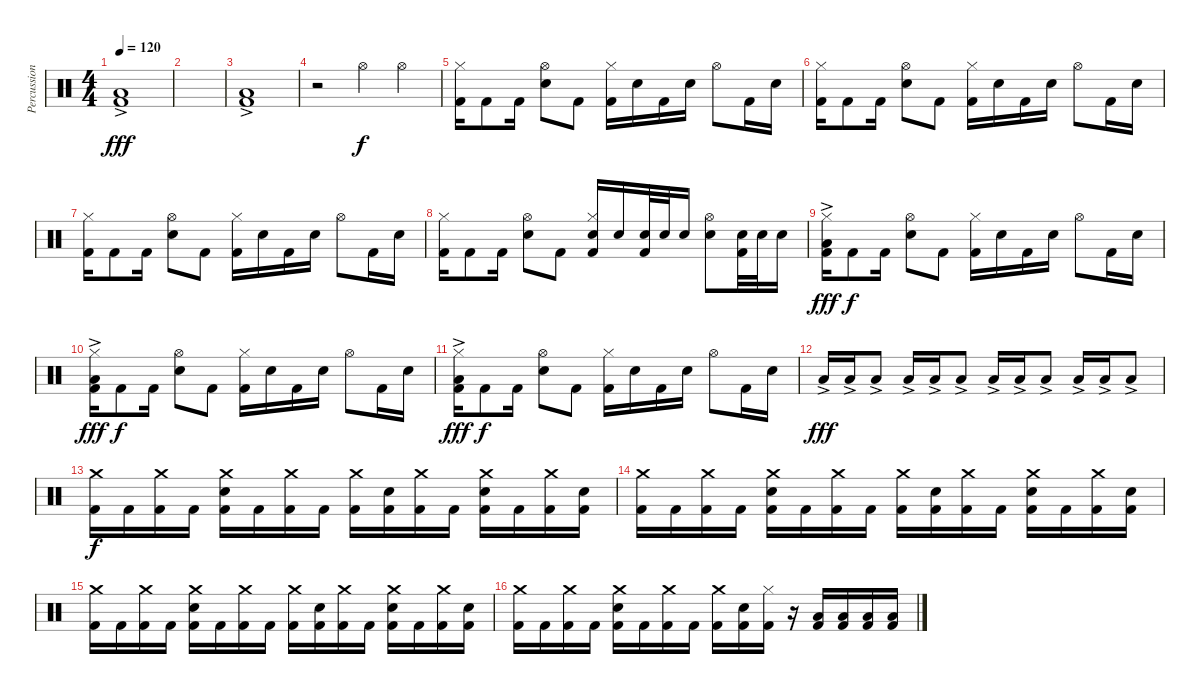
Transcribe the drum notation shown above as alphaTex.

\track ("Percussions" "Percussion") {instrument percussion}
\staff {score}
\articulation defaults
\ts (4 4)
\tempo 120
\clef neutral
\ks c
("Low Floor Tom (hit)"{ac} "Kick (hit) 2"{ac}).1{dy fff} |
|
("Low Floor Tom (hit)"{ac} "Kick (hit) 2"{ac}).1 |
r.2 "Hi-Hat (open)".4{dy f} "Hi-Hat (open)".4 |
("Hi-Hat (closed)" "Kick (hit) 2").16 "Kick (hit) 2".8 "Kick (hit) 2".16 ("Electric Snare (hit)" "Hi-Hat (open)").8 "Kick (hit) 2".8 ("Hi-Hat (closed)" "Kick (hit) 2").16 "Electric Snare (hit)".16 "Kick (hit) 2".16 "Electric Snare (hit)".16 "Hi-Hat (open)".8 "Kick (hit) 2".16 "Electric Snare (hit)".16 |
("Hi-Hat (closed)" "Kick (hit) 2").16 "Kick (hit) 2".8 "Kick (hit) 2".16 ("Electric Snare (hit)" "Hi-Hat (open)").8 "Kick (hit) 2".8 ("Hi-Hat (closed)" "Kick (hit) 2").16 "Electric Snare (hit)".16 "Kick (hit) 2".16 "Electric Snare (hit)".16 "Hi-Hat (open)".8 "Kick (hit) 2".16 "Electric Snare (hit)".16 |
("Hi-Hat (closed)" "Kick (hit) 2").16 "Kick (hit) 2".8 "Kick (hit) 2".16 ("Electric Snare (hit)" "Hi-Hat (open)").8 "Kick (hit) 2".8 ("Hi-Hat (closed)" "Kick (hit) 2").16 "Electric Snare (hit)".16 "Kick (hit) 2".16 "Electric Snare (hit)".16 "Hi-Hat (open)".8 "Kick (hit) 2".16 "Electric Snare (hit)".16 |
("Hi-Hat (closed)" "Kick (hit) 2").16 "Kick (hit) 2".8 "Kick (hit) 2".16 ("Electric Snare (hit)" "Hi-Hat (open)").8 "Kick (hit) 2".8 ("Electric Snare (hit)" "Hi-Hat (closed)" "Kick (hit) 2").16 "Electric Snare (hit)".16 ("Electric Snare (hit)" "Kick (hit) 2").32 "Electric Snare (hit)".32 "Electric Snare (hit)".16 ("Electric Snare (hit)" "Hi-Hat (open)").8 ("Electric Snare (hit)" "Kick (hit) 2").32 "Electric Snare (hit)".32 "Electric Snare (hit)".16 |
("Hi-Hat (closed)" "Low Floor Tom (hit)"{ac} "Kick (hit) 2"{ac}).16{dy fff} "Kick (hit) 2".8{dy f} "Kick (hit) 2".16 ("Electric Snare (hit)" "Hi-Hat (open)").8 "Kick (hit) 2".8 ("Hi-Hat (closed)" "Kick (hit) 2").16 "Electric Snare (hit)".16 "Kick (hit) 2".16 "Electric Snare (hit)".16 "Hi-Hat (open)".8 "Kick (hit) 2".16 "Electric Snare (hit)".16 |
("Hi-Hat (closed)" "Low Floor Tom (hit)"{ac} "Kick (hit) 2"{ac}).16{dy fff} "Kick (hit) 2".8{dy f} "Kick (hit) 2".16 ("Electric Snare (hit)" "Hi-Hat (open)").8 "Kick (hit) 2".8 ("Hi-Hat (closed)" "Kick (hit) 2").16 "Electric Snare (hit)".16 "Kick (hit) 2".16 "Electric Snare (hit)".16 "Hi-Hat (open)".8 "Kick (hit) 2".16 "Electric Snare (hit)".16 |
("Hi-Hat (closed)" "Low Floor Tom (hit)"{ac} "Kick (hit) 2"{ac}).16{dy fff} "Kick (hit) 2".8{dy f} "Kick (hit) 2".16 ("Electric Snare (hit)" "Hi-Hat (open)").8 "Kick (hit) 2".8 ("Hi-Hat (closed)" "Kick (hit) 2").16 "Electric Snare (hit)".16 "Kick (hit) 2".16 "Electric Snare (hit)".16 "Hi-Hat (open)".8 "Kick (hit) 2".16 "Electric Snare (hit)".16 |
"Low Floor Tom (hit)"{ac}.16{dy fff} "Low Floor Tom (hit)"{ac}.16 "Low Floor Tom (hit)"{ac}.8 "Low Floor Tom (hit)"{ac}.16 "Low Floor Tom (hit)"{ac}.16 "Low Floor Tom (hit)"{ac}.8 "Low Floor Tom (hit)"{ac}.16 "Low Floor Tom (hit)"{ac}.16 "Low Floor Tom (hit)"{ac}.8 "Low Floor Tom (hit)"{ac}.16 "Low Floor Tom (hit)"{ac}.16 "Low Floor Tom (hit)"{ac}.8 |
("Crash medium (hit)" "Kick (hit) 2").16{dy f} "Kick (hit) 2".16 ("Crash medium (hit)" "Kick (hit) 2").16 "Kick (hit) 2".16 ("Electric Snare (hit)" "Crash medium (hit)" "Kick (hit) 2").16 "Kick (hit) 2".16 ("Crash medium (hit)" "Kick (hit) 2").16 "Kick (hit) 2".16 ("Crash medium (hit)" "Kick (hit) 2").16 ("Electric Snare (hit)" "Kick (hit) 2").16 ("Crash medium (hit)" "Kick (hit) 2").16 "Kick (hit) 2".16 ("Electric Snare (hit)" "Crash medium (hit)" "Kick (hit) 2").16 "Kick (hit) 2".16 ("Crash medium (hit)" "Kick (hit) 2").16 ("Electric Snare (hit)" "Kick (hit) 2").16 |
("Crash medium (hit)" "Kick (hit) 2").16 "Kick (hit) 2".16 ("Crash medium (hit)" "Kick (hit) 2").16 "Kick (hit) 2".16 ("Electric Snare (hit)" "Crash medium (hit)" "Kick (hit) 2").16 "Kick (hit) 2".16 ("Crash medium (hit)" "Kick (hit) 2").16 "Kick (hit) 2".16 ("Crash medium (hit)" "Kick (hit) 2").16 ("Electric Snare (hit)" "Kick (hit) 2").16 ("Crash medium (hit)" "Kick (hit) 2").16 "Kick (hit) 2".16 ("Electric Snare (hit)" "Crash medium (hit)" "Kick (hit) 2").16 "Kick (hit) 2".16 ("Crash medium (hit)" "Kick (hit) 2").16 ("Electric Snare (hit)" "Kick (hit) 2").16 |
("Crash medium (hit)" "Kick (hit) 2").16 "Kick (hit) 2".16 ("Crash medium (hit)" "Kick (hit) 2").16 "Kick (hit) 2".16 ("Electric Snare (hit)" "Crash medium (hit)" "Kick (hit) 2").16 "Kick (hit) 2".16 ("Crash medium (hit)" "Kick (hit) 2").16 "Kick (hit) 2".16 ("Crash medium (hit)" "Kick (hit) 2").16 ("Electric Snare (hit)" "Kick (hit) 2").16 ("Crash medium (hit)" "Kick (hit) 2").16 "Kick (hit) 2".16 ("Electric Snare (hit)" "Crash medium (hit)" "Kick (hit) 2").16 "Kick (hit) 2".16 ("Crash medium (hit)" "Kick (hit) 2").16 ("Electric Snare (hit)" "Kick (hit) 2").16 |
("Crash medium (hit)" "Kick (hit) 2").16 "Kick (hit) 2".16 ("Crash medium (hit)" "Kick (hit) 2").16 "Kick (hit) 2".16 ("Electric Snare (hit)" "Crash medium (hit)" "Kick (hit) 2").16 "Kick (hit) 2".16 ("Crash medium (hit)" "Kick (hit) 2").16 "Kick (hit) 2".16 ("Crash medium (hit)" "Kick (hit) 2").16 ("Electric Snare (hit)" "Kick (hit) 2").16 ("Hi-Hat (closed)" "Kick (hit) 2").16 r.16 ("Low Floor Tom (hit)" "Kick (hit) 2").16 ("Low Floor Tom (hit)" "Kick (hit) 2").16 ("Low Floor Tom (hit)" "Kick (hit) 2").16 ("Low Floor Tom (hit)" "Kick (hit) 2").16
